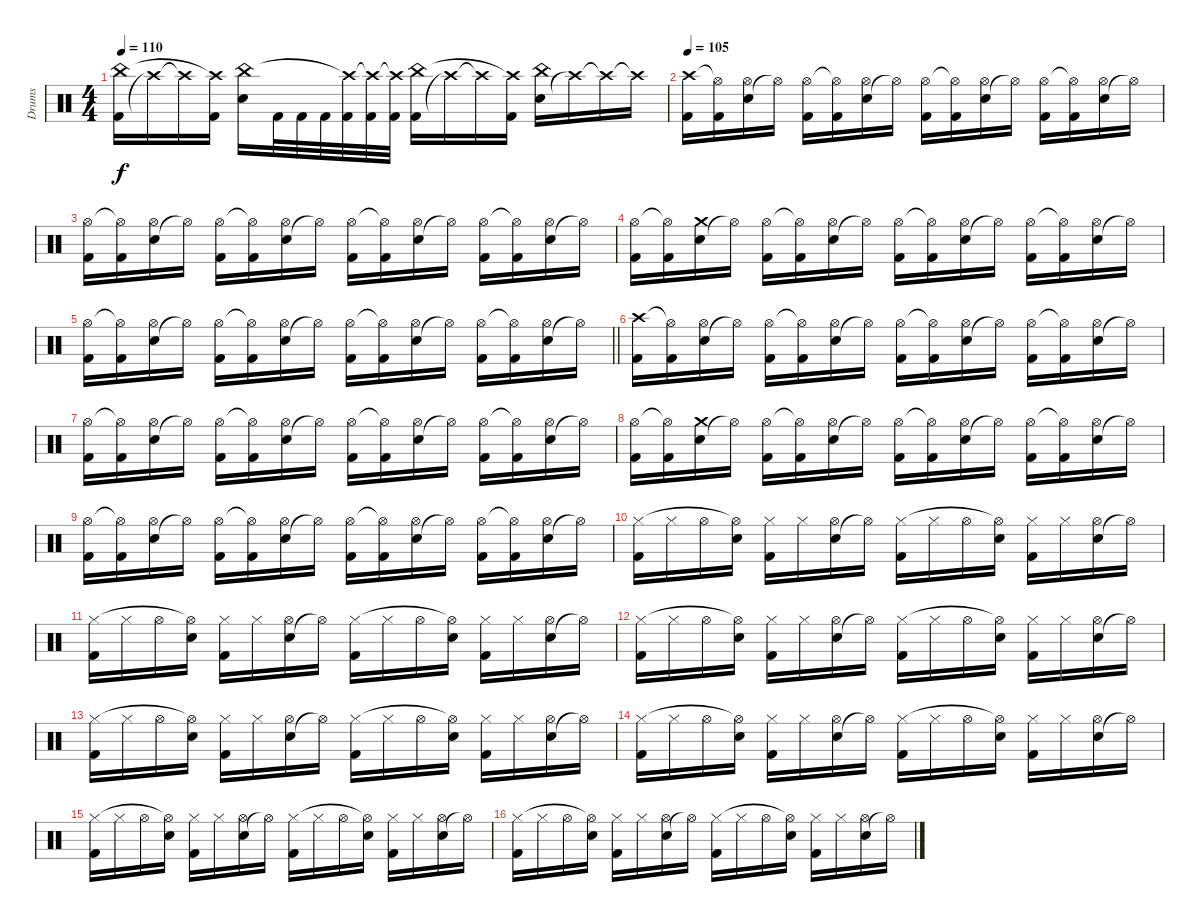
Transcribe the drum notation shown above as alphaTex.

\track ("Drums" "Drums") {instrument percussion}
\staff {score}
\articulation defaults
\ts (4 4)
\tempo 110
\clef neutral
\ks c
("Kick (hit) 2" "China (hit)").16{dy f} "Crash high (hit)"{t}.16 "Crash high (hit)"{t}.16 ("Kick (hit) 2" "Crash high (hit)"{t}).16 ("Snare (hit) 2" "China (hit)").16 "Kick (hit) 2".32 "Kick (hit) 2".32 "Kick (hit) 2".32 ("Kick (hit) 2" "Crash high (hit)"{t}).32 ("Kick (hit) 2" "Crash high (hit)"{t}).32 ("Kick (hit) 2" "Crash high (hit)"{t}).32 ("Kick (hit) 2" "China (hit)").16 "Crash high (hit)"{t}.16 "Crash high (hit)"{t}.16 ("Kick (hit) 2" "Crash high (hit)"{t}).16 ("Snare (hit) 2" "China (hit)").16 "Crash high (hit)"{t}.16 "Crash high (hit)"{t}.16 "Crash high (hit)"{t}.16 |
\tempo 105
("Kick (hit) 2" "Crash high (hit)").16 ("Kick (hit) 2" "Hi-Hat (open)"{t}).16 ("Snare (hit) 2" "Hi-Hat (open)").16 "Hi-Hat (open)"{t}.16 ("Kick (hit) 2" "Hi-Hat (open)").16 ("Kick (hit) 2" "Hi-Hat (open)"{t}).16 ("Snare (hit) 2" "Hi-Hat (open)").16 "Hi-Hat (open)"{t}.16 ("Kick (hit) 2" "Hi-Hat (open)").16 ("Kick (hit) 2" "Hi-Hat (open)"{t}).16 ("Snare (hit) 2" "Hi-Hat (open)").16 "Hi-Hat (open)"{t}.16 ("Kick (hit) 2" "Hi-Hat (open)").16 ("Kick (hit) 2" "Hi-Hat (open)"{t}).16 ("Snare (hit) 2" "Hi-Hat (open)").16 "Hi-Hat (open)"{t}.16 |
("Kick (hit) 2" "Hi-Hat (open)").16 ("Kick (hit) 2" "Hi-Hat (open)"{t}).16 ("Snare (hit) 2" "Hi-Hat (open)").16 "Hi-Hat (open)"{t}.16 ("Kick (hit) 2" "Hi-Hat (open)").16 ("Kick (hit) 2" "Hi-Hat (open)"{t}).16 ("Snare (hit) 2" "Hi-Hat (open)").16 "Hi-Hat (open)"{t}.16 ("Kick (hit) 2" "Hi-Hat (open)").16 ("Kick (hit) 2" "Hi-Hat (open)"{t}).16 ("Snare (hit) 2" "Hi-Hat (open)").16 "Hi-Hat (open)"{t}.16 ("Kick (hit) 2" "Hi-Hat (open)").16 ("Kick (hit) 2" "Hi-Hat (open)"{t}).16 ("Snare (hit) 2" "Hi-Hat (open)").16 "Hi-Hat (open)"{t}.16 |
("Kick (hit) 2" "Hi-Hat (open)").16 ("Kick (hit) 2" "Hi-Hat (open)"{t}).16 ("Snare (hit) 2" "Crash medium (hit)").16 "Hi-Hat (open)"{t}.16 ("Kick (hit) 2" "Hi-Hat (open)").16 ("Kick (hit) 2" "Hi-Hat (open)"{t}).16 ("Snare (hit) 2" "Hi-Hat (open)").16 "Hi-Hat (open)"{t}.16 ("Kick (hit) 2" "Hi-Hat (open)").16 ("Kick (hit) 2" "Hi-Hat (open)"{t}).16 ("Snare (hit) 2" "Hi-Hat (open)").16 "Hi-Hat (open)"{t}.16 ("Kick (hit) 2" "Hi-Hat (open)").16 ("Kick (hit) 2" "Hi-Hat (open)"{t}).16 ("Snare (hit) 2" "Hi-Hat (open)").16 "Hi-Hat (open)"{t}.16 |
\barLineRight lightlight
("Kick (hit) 2" "Hi-Hat (open)").16 ("Kick (hit) 2" "Hi-Hat (open)"{t}).16 ("Snare (hit) 2" "Hi-Hat (open)").16 "Hi-Hat (open)"{t}.16 ("Kick (hit) 2" "Hi-Hat (open)").16 ("Kick (hit) 2" "Hi-Hat (open)"{t}).16 ("Snare (hit) 2" "Hi-Hat (open)").16 "Hi-Hat (open)"{t}.16 ("Kick (hit) 2" "Hi-Hat (open)").16 ("Kick (hit) 2" "Hi-Hat (open)"{t}).16 ("Snare (hit) 2" "Hi-Hat (open)").16 "Hi-Hat (open)"{t}.16 ("Kick (hit) 2" "Hi-Hat (open)").16 ("Kick (hit) 2" "Hi-Hat (open)"{t}).16 ("Snare (hit) 2" "Hi-Hat (open)").16 "Hi-Hat (open)"{t}.16 |
("Kick (hit) 2" "Crash high (hit)").16 ("Kick (hit) 2" "Hi-Hat (open)"{t}).16 ("Snare (hit) 2" "Hi-Hat (open)").16 "Hi-Hat (open)"{t}.16 ("Kick (hit) 2" "Hi-Hat (open)").16 ("Kick (hit) 2" "Hi-Hat (open)"{t}).16 ("Snare (hit) 2" "Hi-Hat (open)").16 "Hi-Hat (open)"{t}.16 ("Kick (hit) 2" "Hi-Hat (open)").16 ("Kick (hit) 2" "Hi-Hat (open)"{t}).16 ("Snare (hit) 2" "Hi-Hat (open)").16 "Hi-Hat (open)"{t}.16 ("Kick (hit) 2" "Hi-Hat (open)").16 ("Kick (hit) 2" "Hi-Hat (open)"{t}).16 ("Snare (hit) 2" "Hi-Hat (open)").16 "Hi-Hat (open)"{t}.16 |
("Kick (hit) 2" "Hi-Hat (open)").16 ("Kick (hit) 2" "Hi-Hat (open)"{t}).16 ("Snare (hit) 2" "Hi-Hat (open)").16 "Hi-Hat (open)"{t}.16 ("Kick (hit) 2" "Hi-Hat (open)").16 ("Kick (hit) 2" "Hi-Hat (open)"{t}).16 ("Snare (hit) 2" "Hi-Hat (open)").16 "Hi-Hat (open)"{t}.16 ("Kick (hit) 2" "Hi-Hat (open)").16 ("Kick (hit) 2" "Hi-Hat (open)"{t}).16 ("Snare (hit) 2" "Hi-Hat (open)").16 "Hi-Hat (open)"{t}.16 ("Kick (hit) 2" "Hi-Hat (open)").16 ("Kick (hit) 2" "Hi-Hat (open)"{t}).16 ("Snare (hit) 2" "Hi-Hat (open)").16 "Hi-Hat (open)"{t}.16 |
("Kick (hit) 2" "Hi-Hat (open)").16 ("Kick (hit) 2" "Hi-Hat (open)"{t}).16 ("Snare (hit) 2" "Crash medium (hit)").16 "Hi-Hat (open)"{t}.16 ("Kick (hit) 2" "Hi-Hat (open)").16 ("Kick (hit) 2" "Hi-Hat (open)"{t}).16 ("Snare (hit) 2" "Hi-Hat (open)").16 "Hi-Hat (open)"{t}.16 ("Kick (hit) 2" "Hi-Hat (open)").16 ("Kick (hit) 2" "Hi-Hat (open)"{t}).16 ("Snare (hit) 2" "Hi-Hat (open)").16 "Hi-Hat (open)"{t}.16 ("Kick (hit) 2" "Hi-Hat (open)").16 ("Kick (hit) 2" "Hi-Hat (open)"{t}).16 ("Snare (hit) 2" "Hi-Hat (open)").16 "Hi-Hat (open)"{t}.16 |
("Kick (hit) 2" "Hi-Hat (open)").16 ("Kick (hit) 2" "Hi-Hat (open)"{t}).16 ("Snare (hit) 2" "Hi-Hat (open)").16 "Hi-Hat (open)"{t}.16 ("Kick (hit) 2" "Hi-Hat (open)").16 ("Kick (hit) 2" "Hi-Hat (open)"{t}).16 ("Snare (hit) 2" "Hi-Hat (open)").16 "Hi-Hat (open)"{t}.16 ("Kick (hit) 2" "Hi-Hat (open)").16 ("Kick (hit) 2" "Hi-Hat (open)"{t}).16 ("Snare (hit) 2" "Hi-Hat (open)").16 "Hi-Hat (open)"{t}.16 ("Kick (hit) 2" "Hi-Hat (open)").16 ("Kick (hit) 2" "Hi-Hat (open)"{t}).16 ("Snare (hit) 2" "Hi-Hat (open)").16 "Hi-Hat (open)"{t}.16 |
("Kick (hit) 2" "Hi-Hat (closed)").16 "Hi-Hat (closed)".16 "Hi-Hat (open)".16 ("Snare (hit) 2" "Hi-Hat (open)"{t}).16 ("Kick (hit) 2" "Hi-Hat (closed)").16 "Hi-Hat (closed)".16 ("Snare (hit) 2" "Hi-Hat (open)").16 "Hi-Hat (open)"{t}.16 ("Kick (hit) 2" "Hi-Hat (closed)").16 "Hi-Hat (closed)".16 "Hi-Hat (open)".16 ("Snare (hit) 2" "Hi-Hat (open)"{t}).16 ("Kick (hit) 2" "Hi-Hat (closed)").16 "Hi-Hat (closed)".16 ("Snare (hit) 2" "Hi-Hat (open)").16 "Hi-Hat (open)"{t}.16 |
("Kick (hit) 2" "Hi-Hat (closed)").16 "Hi-Hat (closed)".16 "Hi-Hat (open)".16 ("Snare (hit) 2" "Hi-Hat (open)"{t}).16 ("Kick (hit) 2" "Hi-Hat (closed)").16 "Hi-Hat (closed)".16 ("Snare (hit) 2" "Hi-Hat (open)").16 "Hi-Hat (open)"{t}.16 ("Kick (hit) 2" "Hi-Hat (closed)").16 "Hi-Hat (closed)".16 "Hi-Hat (open)".16 ("Snare (hit) 2" "Hi-Hat (open)"{t}).16 ("Kick (hit) 2" "Hi-Hat (closed)").16 "Hi-Hat (closed)".16 ("Snare (hit) 2" "Hi-Hat (open)").16 "Hi-Hat (open)"{t}.16 |
("Kick (hit) 2" "Hi-Hat (closed)").16 "Hi-Hat (closed)".16 "Hi-Hat (open)".16 ("Snare (hit) 2" "Hi-Hat (open)"{t}).16 ("Kick (hit) 2" "Hi-Hat (closed)").16 "Hi-Hat (closed)".16 ("Snare (hit) 2" "Hi-Hat (open)").16 "Hi-Hat (open)"{t}.16 ("Kick (hit) 2" "Hi-Hat (closed)").16 "Hi-Hat (closed)".16 "Hi-Hat (open)".16 ("Snare (hit) 2" "Hi-Hat (open)"{t}).16 ("Kick (hit) 2" "Hi-Hat (closed)").16 "Hi-Hat (closed)".16 ("Snare (hit) 2" "Hi-Hat (open)").16 "Hi-Hat (open)"{t}.16 |
("Kick (hit) 2" "Hi-Hat (closed)").16 "Hi-Hat (closed)".16 "Hi-Hat (open)".16 ("Snare (hit) 2" "Hi-Hat (open)"{t}).16 ("Kick (hit) 2" "Hi-Hat (closed)").16 "Hi-Hat (closed)".16 ("Snare (hit) 2" "Hi-Hat (open)").16 "Hi-Hat (open)"{t}.16 ("Kick (hit) 2" "Hi-Hat (closed)").16 "Hi-Hat (closed)".16 "Hi-Hat (open)".16 ("Snare (hit) 2" "Hi-Hat (open)"{t}).16 ("Kick (hit) 2" "Hi-Hat (closed)").16 "Hi-Hat (closed)".16 ("Snare (hit) 2" "Hi-Hat (open)").16 "Hi-Hat (open)"{t}.16 |
("Kick (hit) 2" "Hi-Hat (closed)").16 "Hi-Hat (closed)".16 "Hi-Hat (open)".16 ("Snare (hit) 2" "Hi-Hat (open)"{t}).16 ("Kick (hit) 2" "Hi-Hat (closed)").16 "Hi-Hat (closed)".16 ("Snare (hit) 2" "Hi-Hat (open)").16 "Hi-Hat (open)"{t}.16 ("Kick (hit) 2" "Hi-Hat (closed)").16 "Hi-Hat (closed)".16 "Hi-Hat (open)".16 ("Snare (hit) 2" "Hi-Hat (open)"{t}).16 ("Kick (hit) 2" "Hi-Hat (closed)").16 "Hi-Hat (closed)".16 ("Snare (hit) 2" "Hi-Hat (open)").16 "Hi-Hat (open)"{t}.16 |
("Kick (hit) 2" "Hi-Hat (closed)").16 "Hi-Hat (closed)".16 "Hi-Hat (open)".16 ("Snare (hit) 2" "Hi-Hat (open)"{t}).16 ("Kick (hit) 2" "Hi-Hat (closed)").16 "Hi-Hat (closed)".16 ("Snare (hit) 2" "Hi-Hat (open)").16 "Hi-Hat (open)"{t}.16 ("Kick (hit) 2" "Hi-Hat (closed)").16 "Hi-Hat (closed)".16 "Hi-Hat (open)".16 ("Snare (hit) 2" "Hi-Hat (open)"{t}).16 ("Kick (hit) 2" "Hi-Hat (closed)").16 "Hi-Hat (closed)".16 ("Snare (hit) 2" "Hi-Hat (open)").16 "Hi-Hat (open)"{t}.16 |
("Kick (hit) 2" "Hi-Hat (closed)").16 "Hi-Hat (closed)".16 "Hi-Hat (open)".16 ("Snare (hit) 2" "Hi-Hat (open)"{t}).16 ("Kick (hit) 2" "Hi-Hat (closed)").16 "Hi-Hat (closed)".16 ("Snare (hit) 2" "Hi-Hat (open)").16 "Hi-Hat (open)"{t}.16 ("Kick (hit) 2" "Hi-Hat (closed)").16 "Hi-Hat (closed)".16 "Hi-Hat (open)".16 ("Snare (hit) 2" "Hi-Hat (open)"{t}).16 ("Kick (hit) 2" "Hi-Hat (closed)").16 "Hi-Hat (closed)".16 ("Snare (hit) 2" "Hi-Hat (open)").16 "Hi-Hat (open)"{t}.16
